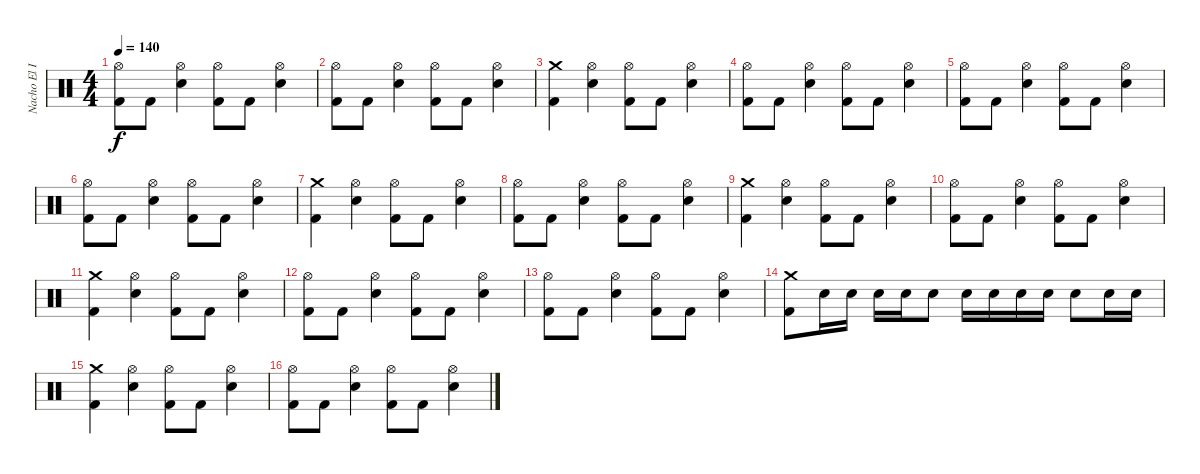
\track ("Nacho El Implacable Gonzalez" "Nacho El I") {instrument percussion}
\staff {score}
\articulation defaults
\ts (4 4)
\tempo 140
\clef neutral
\ks c
("Hi-Hat (open)" "Kick (hit) 2").8{dy f} "Kick (hit) 2".8 ("Hi-Hat (open)" "Electric Snare (hit)").4 ("Hi-Hat (open)" "Kick (hit) 2").8 "Kick (hit) 2".8 ("Hi-Hat (open)" "Electric Snare (hit)").4 |
("Hi-Hat (open)" "Kick (hit) 2").8 "Kick (hit) 2".8 ("Hi-Hat (open)" "Electric Snare (hit)").4 ("Hi-Hat (open)" "Kick (hit) 2").8 "Kick (hit) 2".8 ("Hi-Hat (open)" "Electric Snare (hit)").4 |
("Crash medium (hit)" "Kick (hit) 2").4 ("Hi-Hat (open)" "Electric Snare (hit)").4 ("Hi-Hat (open)" "Kick (hit) 2").8 "Kick (hit) 2".8 ("Hi-Hat (open)" "Electric Snare (hit)").4 |
("Hi-Hat (open)" "Kick (hit) 2").8 "Kick (hit) 2".8 ("Hi-Hat (open)" "Electric Snare (hit)").4 ("Hi-Hat (open)" "Kick (hit) 2").8 "Kick (hit) 2".8 ("Hi-Hat (open)" "Electric Snare (hit)").4 |
("Hi-Hat (open)" "Kick (hit) 2").8 "Kick (hit) 2".8 ("Hi-Hat (open)" "Electric Snare (hit)").4 ("Hi-Hat (open)" "Kick (hit) 2").8 "Kick (hit) 2".8 ("Hi-Hat (open)" "Electric Snare (hit)").4 |
("Hi-Hat (open)" "Kick (hit) 2").8 "Kick (hit) 2".8 ("Hi-Hat (open)" "Electric Snare (hit)").4 ("Hi-Hat (open)" "Kick (hit) 2").8 "Kick (hit) 2".8 ("Hi-Hat (open)" "Electric Snare (hit)").4 |
("Crash medium (hit)" "Kick (hit) 2").4 ("Hi-Hat (open)" "Electric Snare (hit)").4 ("Hi-Hat (open)" "Kick (hit) 2").8 "Kick (hit) 2".8 ("Hi-Hat (open)" "Electric Snare (hit)").4 |
("Hi-Hat (open)" "Kick (hit) 2").8 "Kick (hit) 2".8 ("Hi-Hat (open)" "Electric Snare (hit)").4 ("Hi-Hat (open)" "Kick (hit) 2").8 "Kick (hit) 2".8 ("Hi-Hat (open)" "Electric Snare (hit)").4 |
("Crash medium (hit)" "Kick (hit) 2").4 ("Hi-Hat (open)" "Electric Snare (hit)").4 ("Hi-Hat (open)" "Kick (hit) 2").8 "Kick (hit) 2".8 ("Hi-Hat (open)" "Electric Snare (hit)").4 |
("Hi-Hat (open)" "Kick (hit) 2").8 "Kick (hit) 2".8 ("Hi-Hat (open)" "Electric Snare (hit)").4 ("Hi-Hat (open)" "Kick (hit) 2").8 "Kick (hit) 2".8 ("Hi-Hat (open)" "Electric Snare (hit)").4 |
("Crash medium (hit)" "Kick (hit) 2").4 ("Hi-Hat (open)" "Electric Snare (hit)").4 ("Hi-Hat (open)" "Kick (hit) 2").8 "Kick (hit) 2".8 ("Hi-Hat (open)" "Electric Snare (hit)").4 |
("Hi-Hat (open)" "Kick (hit) 2").8 "Kick (hit) 2".8 ("Hi-Hat (open)" "Electric Snare (hit)").4 ("Hi-Hat (open)" "Kick (hit) 2").8 "Kick (hit) 2".8 ("Hi-Hat (open)" "Electric Snare (hit)").4 |
("Hi-Hat (open)" "Kick (hit) 2").8 "Kick (hit) 2".8 ("Hi-Hat (open)" "Electric Snare (hit)").4 ("Hi-Hat (open)" "Kick (hit) 2").8 "Kick (hit) 2".8 ("Hi-Hat (open)" "Electric Snare (hit)").4 |
("Crash medium (hit)" "Kick (hit) 2").8 "Electric Snare (hit)".16 "Electric Snare (hit)".16 "Electric Snare (hit)".16 "Electric Snare (hit)".16 "Electric Snare (hit)".8 "Electric Snare (hit)".16 "Electric Snare (hit)".16 "Electric Snare (hit)".16 "Electric Snare (hit)".16 "Electric Snare (hit)".8 "Electric Snare (hit)".16 "Electric Snare (hit)".16 |
("Crash medium (hit)" "Kick (hit) 2").4 ("Hi-Hat (open)" "Electric Snare (hit)").4 ("Hi-Hat (open)" "Kick (hit) 2").8 "Kick (hit) 2".8 ("Hi-Hat (open)" "Electric Snare (hit)").4 |
("Hi-Hat (open)" "Kick (hit) 2").8 "Kick (hit) 2".8 ("Hi-Hat (open)" "Electric Snare (hit)").4 ("Hi-Hat (open)" "Kick (hit) 2").8 "Kick (hit) 2".8 ("Hi-Hat (open)" "Electric Snare (hit)").4
